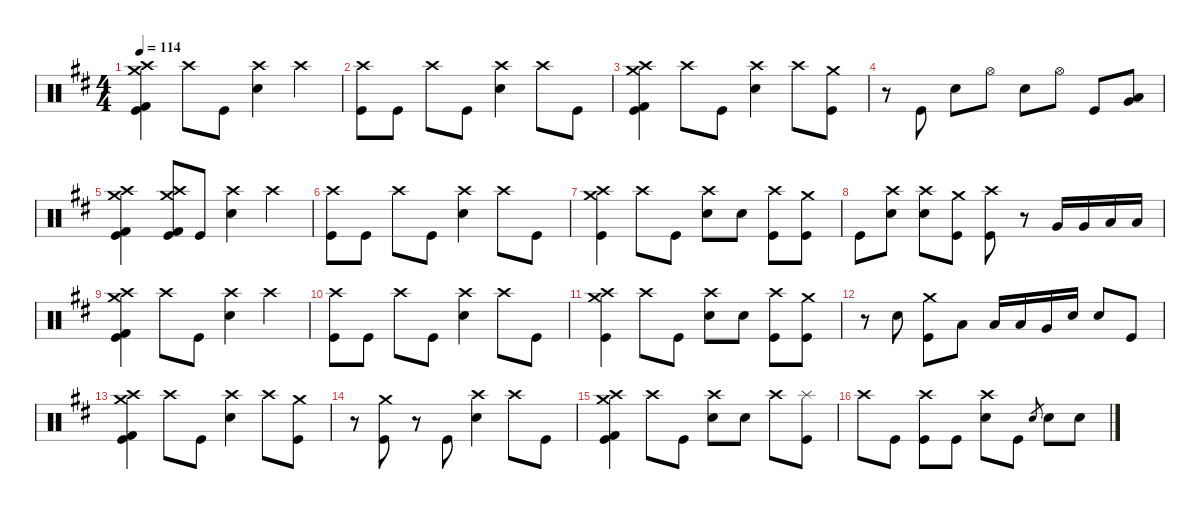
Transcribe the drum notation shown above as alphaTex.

\defaultSystemsLayout 4
\hideDynamics
\bracketExtendMode nobrackets
\singleTrackTrackNamePolicy hidden
\multiTrackTrackNamePolicy hidden
\firstSystemTrackNameMode fullname
\firstSystemTrackNameOrientation horizontal
\otherSystemsTrackNameOrientation horizontal
\track ("Aaron Harris" "drm.") {instrument percussion}
\staff {score}
\articulation defaults
\ts (4 4)
\tempo 114
\clef neutral
\ks bminor
("Crash medium (hit)"{acc forcenatural} "Crash high (hit)"{acc forcenatural} "Kick (hit) 2"{acc forcenatural} "Kick (hit)"{acc forcenatural}).4{dy f beam Down} "Crash high (hit)"{acc forcenatural}.8{beam Down} "Kick (hit)"{acc forcenatural}.8{beam Down} ("Crash high (hit)"{acc forcenatural} "Snare (hit) 2"{acc forcenatural}).4{beam Down} "Crash high (hit)"{acc forcenatural}.4{beam Down} |
("Crash high (hit)"{acc forcenatural} "Kick (hit)"{acc forcenatural}).8{beam Down} "Kick (hit)"{acc forcenatural}.8{beam Down} "Crash high (hit)"{acc forcenatural}.8{beam Down} "Kick (hit)"{acc forcenatural}.8{beam Down} ("Crash high (hit)"{acc forcenatural} "Snare (hit) 2"{acc forcenatural}).4{beam Down} "Crash high (hit)"{acc forcenatural}.8{beam Down} "Kick (hit)"{acc forcenatural}.8{beam Down} |
("Crash medium (hit)"{acc forcenatural} "Crash high (hit)"{acc forcenatural} "Kick (hit) 2"{acc forcenatural} "Kick (hit)"{acc forcenatural}).4{beam Down} "Crash high (hit)"{acc forcenatural}.8{beam Down} "Kick (hit)"{acc forcenatural}.8{beam Down} ("Crash high (hit)"{acc forcenatural} "Snare (hit) 2"{acc forcenatural}).4{beam Down} "Crash high (hit)"{acc forcenatural}.8{beam Down} ("Crash medium (hit)"{acc forcenatural} "Kick (hit)"{acc forcenatural}).8{beam Down} |
r.8{beam Down} "Kick (hit)"{acc forcenatural}.8{beam Up} "Snare (hit) 2"{acc forcenatural}.8{beam Down} "Hi-Hat (open)"{acc forcenatural}.8{beam Down} "Snare (hit) 2"{acc forcenatural}.8{beam Down} "Hi-Hat (open)"{acc forcenatural}.8{beam Down} "Kick (hit)"{acc forcenatural}.8{beam Up} ("Very Low Tom (hit)"{acc forcenatural} "Low Floor Tom (hit)"{acc forcenatural}).8{beam Up} |
("Crash medium (hit)"{acc forcenatural} "Crash high (hit)"{acc forcenatural} "Kick (hit) 2"{acc forcenatural} "Kick (hit)"{acc forcenatural}).4{beam Down} ("Crash medium (hit)"{acc forcenatural} "Crash high (hit)"{acc forcenatural} "Kick (hit) 2"{acc forcenatural} "Kick (hit)"{acc forcenatural}).8{beam Up} "Kick (hit)"{acc forcenatural}.8{beam Up} ("Crash high (hit)"{acc forcenatural} "Snare (hit) 2"{acc forcenatural}).4{beam Down} "Crash high (hit)"{acc forcenatural}.4{beam Down} |
("Crash high (hit)"{acc forcenatural} "Kick (hit)"{acc forcenatural}).8{beam Down} "Kick (hit)"{acc forcenatural}.8{beam Down} "Crash high (hit)"{acc forcenatural}.8{beam Down} "Kick (hit)"{acc forcenatural}.8{beam Down} ("Crash high (hit)"{acc forcenatural} "Snare (hit) 2"{acc forcenatural}).4{beam Down} "Crash high (hit)"{acc forcenatural}.8{beam Down} "Kick (hit)"{acc forcenatural}.8{beam Down} |
("Crash medium (hit)"{acc forcenatural} "Crash high (hit)"{acc forcenatural} "Kick (hit)"{acc forcenatural}).4{beam Down} "Crash high (hit)"{acc forcenatural}.8{beam Down} "Kick (hit)"{acc forcenatural}.8{beam Down} ("Crash high (hit)"{acc forcenatural} "Snare (hit) 2"{acc forcenatural}).8{beam Down} "Snare (hit) 2"{acc forcenatural}.8{beam Down} ("Crash high (hit)"{acc forcenatural} "Kick (hit)"{acc forcenatural}).8{beam Down} ("Crash medium (hit)"{acc forcenatural} "Kick (hit)"{acc forcenatural}).8{beam Down} |
"Kick (hit)"{acc forcenatural}.8{beam Down} ("Crash high (hit)"{acc forcenatural} "Snare (hit) 2"{acc forcenatural}).8{beam Down} ("Crash high (hit)"{acc forcenatural} "Snare (hit) 2"{acc forcenatural}).8{beam Down} ("Crash medium (hit)"{acc forcenatural} "Kick (hit)"{acc forcenatural}).8{beam Down} ("Crash high (hit)"{acc forcenatural} "Kick (hit)"{acc forcenatural}).8{beam Down} r.8{beam Down} "Very Low Tom (hit)"{acc forcenatural}.16{beam Up} "Very Low Tom (hit)"{acc forcenatural}.16{beam Up} "Low Floor Tom (hit)"{acc forcenatural}.16{beam Up} "Low Floor Tom (hit)"{acc forcenatural}.16{beam Up} |
("Crash medium (hit)"{acc forcenatural} "Crash high (hit)"{acc forcenatural} "Kick (hit) 2"{acc forcenatural} "Kick (hit)"{acc forcenatural}).4{beam Down} "Crash high (hit)"{acc forcenatural}.8{beam Down} "Kick (hit)"{acc forcenatural}.8{beam Down} ("Crash high (hit)"{acc forcenatural} "Snare (hit) 2"{acc forcenatural}).4{beam Down} "Crash high (hit)"{acc forcenatural}.4{beam Down} |
("Crash high (hit)"{acc forcenatural} "Kick (hit)"{acc forcenatural}).8{beam Down} "Kick (hit)"{acc forcenatural}.8{beam Down} "Crash high (hit)"{acc forcenatural}.8{beam Down} "Kick (hit)"{acc forcenatural}.8{beam Down} ("Crash high (hit)"{acc forcenatural} "Snare (hit) 2"{acc forcenatural}).4{beam Down} "Crash high (hit)"{acc forcenatural}.8{beam Down} "Kick (hit)"{acc forcenatural}.8{beam Down} |
("Crash medium (hit)"{acc forcenatural} "Crash high (hit)"{acc forcenatural} "Kick (hit)"{acc forcenatural}).4{beam Down} "Crash high (hit)"{acc forcenatural}.8{beam Down} "Kick (hit)"{acc forcenatural}.8{beam Down} ("Crash high (hit)"{acc forcenatural} "Snare (hit) 2"{acc forcenatural}).8{beam Down} "Snare (hit) 2"{acc forcenatural}.8{beam Down} ("Crash high (hit)"{acc forcenatural} "Kick (hit)"{acc forcenatural}).8{beam Down} ("Crash medium (hit)"{acc forcenatural} "Kick (hit)"{acc forcenatural}).8{beam Down} |
r.8{beam Down} "Snare (hit) 2"{acc forcenatural}.8{beam Down} ("Crash medium (hit)"{acc forcenatural} "Kick (hit)"{acc forcenatural}).8{beam Down} "Low Tom (hit)"{acc forcenatural}.8{dy ff beam Down} "Low Tom (hit)"{acc forcenatural}.16{dy f beam Up} "Low Tom (hit)"{acc forcenatural}.16{beam Up} "Very Low Tom (hit)"{acc forcenatural}.16{beam Up} "Snare (hit) 2"{acc forcenatural}.16{beam Up} "Snare (hit) 2"{acc forcenatural}.8{dy ff beam Up} "Kick (hit)"{acc forcenatural}.8{beam Up} |
("Crash medium (hit)"{acc forcenatural} "Crash high (hit)"{acc forcenatural} "Kick (hit) 2"{acc forcenatural} "Kick (hit)"{acc forcenatural}).4{dy f beam Down} "Crash high (hit)"{acc forcenatural}.8{beam Down} "Kick (hit)"{acc forcenatural}.8{beam Down} ("Crash high (hit)"{acc forcenatural} "Snare (hit) 2"{acc forcenatural}).4{beam Down} "Crash high (hit)"{acc forcenatural}.8{beam Down} ("Crash medium (hit)"{acc forcenatural} "Kick (hit)"{acc forcenatural}).8{dy ff beam Down} |
r.8{beam Down} ("Crash medium (hit)"{acc forcenatural} "Kick (hit)"{acc forcenatural}).8{beam Down} r.8{beam Down} "Kick (hit)"{acc forcenatural}.8{dy f beam Up} ("Crash high (hit)"{acc forcenatural} "Snare (hit) 2"{acc forcenatural}).4{beam Down} "Crash high (hit)"{acc forcenatural}.8{beam Down} "Kick (hit)"{acc forcenatural}.8{beam Down} |
("Crash medium (hit)"{acc forcenatural} "Crash high (hit)"{acc forcenatural} "Kick (hit) 2"{acc forcenatural} "Kick (hit)"{acc forcenatural}).4{beam Down} "Crash high (hit)"{acc forcenatural}.8{beam Down} "Kick (hit)"{acc forcenatural}.8{beam Down} ("Crash high (hit)"{acc forcenatural} "Snare (hit) 2"{acc forcenatural}).8{beam Down} "Snare (hit) 2"{acc forcenatural}.8{dy ff beam Down} "Crash high (hit)"{acc forcenatural}.8{dy f beam Down} ("Splash (hit)"{acc forcenatural} "Kick (hit)"{acc forcenatural}).8{dy ff beam Down} |
"Crash high (hit)"{acc forcenatural}.8{dy f beam Down} "Kick (hit)"{acc forcenatural}.8{beam Down} ("Crash high (hit)"{acc forcenatural} "Kick (hit)"{acc forcenatural}).8{beam Down} "Kick (hit)"{acc forcenatural}.8{dy ff beam Down} ("Crash high (hit)"{acc forcenatural} "Snare (hit) 2"{acc forcenatural}).8{dy f beam Down} "Kick (hit)"{acc forcenatural}.8{dy ff beam Down} "Electric Snare (hit)"{acc forcenatural}.8{gr dy f beam Up} "Snare (hit) 2"{acc forcenatural}.8{dy ff beam Down} "Snare (hit) 2"{acc forcenatural}.8{beam Down}
